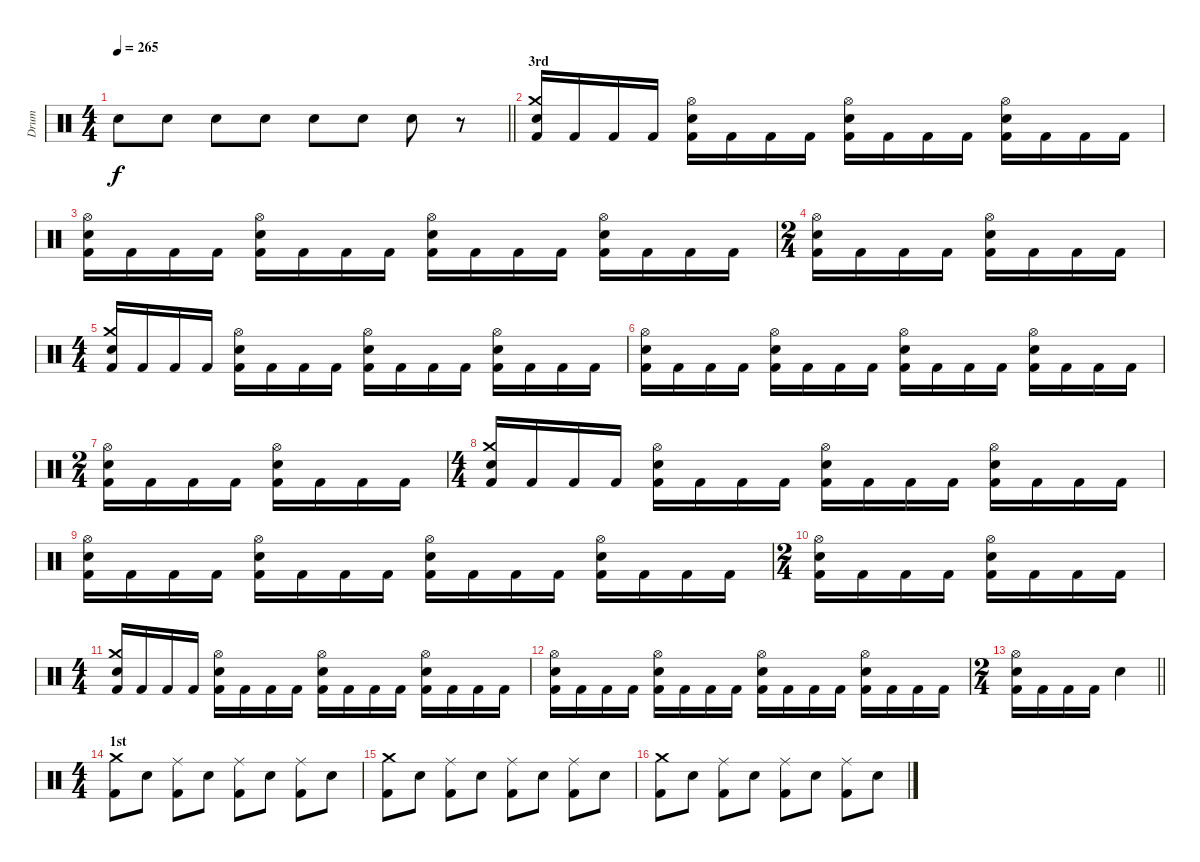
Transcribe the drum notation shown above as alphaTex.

\track ("Drum" "Drum") {instrument percussion}
\staff {score}
\articulation defaults
\ts (4 4)
\tempo 265
\clef neutral
\barLineRight lightlight
\ks c "Snare (hit) 2".8{dy f} "Snare (hit) 2".8 "Snare (hit) 2".8 "Snare (hit) 2".8 "Snare (hit) 2".8 "Snare (hit) 2".8 "Snare (hit) 2".8
r.8 |
\section ("" "3rd")
("Crash medium (hit)" "Snare (hit) 2" "Kick (hit) 2").16 "Kick (hit) 2".16 "Kick (hit) 2".16 "Kick (hit) 2".16 ("Hi-Hat (open)" "Snare (hit) 2" "Kick (hit) 2").16 "Kick (hit) 2".16 "Kick (hit) 2".16 "Kick (hit) 2".16 ("Hi-Hat (open)" "Snare (hit) 2" "Kick (hit) 2").16 "Kick (hit) 2".16 "Kick (hit) 2".16 "Kick (hit) 2".16 ("Hi-Hat (open)" "Snare (hit) 2" "Kick (hit) 2").16 "Kick (hit) 2".16 "Kick (hit) 2".16 "Kick (hit) 2".16 |
("Hi-Hat (open)" "Snare (hit) 2" "Kick (hit) 2").16 "Kick (hit) 2".16 "Kick (hit) 2".16 "Kick (hit) 2".16 ("Hi-Hat (open)" "Snare (hit) 2" "Kick (hit) 2").16 "Kick (hit) 2".16 "Kick (hit) 2".16 "Kick (hit) 2".16 ("Hi-Hat (open)" "Snare (hit) 2" "Kick (hit) 2").16 "Kick (hit) 2".16 "Kick (hit) 2".16 "Kick (hit) 2".16 ("Hi-Hat (open)" "Snare (hit) 2" "Kick (hit) 2").16 "Kick (hit) 2".16 "Kick (hit) 2".16 "Kick (hit) 2".16 |
\ts (2 4)
("Hi-Hat (open)" "Snare (hit) 2" "Kick (hit) 2").16 "Kick (hit) 2".16 "Kick (hit) 2".16 "Kick (hit) 2".16 ("Hi-Hat (open)" "Snare (hit) 2" "Kick (hit) 2").16 "Kick (hit) 2".16 "Kick (hit) 2".16 "Kick (hit) 2".16 |
\ts (4 4)
("Crash medium (hit)" "Snare (hit) 2" "Kick (hit) 2").16 "Kick (hit) 2".16 "Kick (hit) 2".16 "Kick (hit) 2".16 ("Hi-Hat (open)" "Snare (hit) 2" "Kick (hit) 2").16 "Kick (hit) 2".16 "Kick (hit) 2".16 "Kick (hit) 2".16 ("Hi-Hat (open)" "Snare (hit) 2" "Kick (hit) 2").16 "Kick (hit) 2".16 "Kick (hit) 2".16 "Kick (hit) 2".16 ("Hi-Hat (open)" "Snare (hit) 2" "Kick (hit) 2").16 "Kick (hit) 2".16 "Kick (hit) 2".16 "Kick (hit) 2".16 |
("Hi-Hat (open)" "Snare (hit) 2" "Kick (hit) 2").16 "Kick (hit) 2".16 "Kick (hit) 2".16 "Kick (hit) 2".16 ("Hi-Hat (open)" "Snare (hit) 2" "Kick (hit) 2").16 "Kick (hit) 2".16 "Kick (hit) 2".16 "Kick (hit) 2".16 ("Hi-Hat (open)" "Snare (hit) 2" "Kick (hit) 2").16 "Kick (hit) 2".16 "Kick (hit) 2".16 "Kick (hit) 2".16 ("Hi-Hat (open)" "Snare (hit) 2" "Kick (hit) 2").16 "Kick (hit) 2".16 "Kick (hit) 2".16 "Kick (hit) 2".16 |
\ts (2 4)
("Hi-Hat (open)" "Snare (hit) 2" "Kick (hit) 2").16 "Kick (hit) 2".16 "Kick (hit) 2".16 "Kick (hit) 2".16 ("Hi-Hat (open)" "Snare (hit) 2" "Kick (hit) 2").16 "Kick (hit) 2".16 "Kick (hit) 2".16 "Kick (hit) 2".16 |
\ts (4 4)
("Crash medium (hit)" "Snare (hit) 2" "Kick (hit) 2").16 "Kick (hit) 2".16 "Kick (hit) 2".16 "Kick (hit) 2".16 ("Hi-Hat (open)" "Snare (hit) 2" "Kick (hit) 2").16 "Kick (hit) 2".16 "Kick (hit) 2".16 "Kick (hit) 2".16 ("Hi-Hat (open)" "Snare (hit) 2" "Kick (hit) 2").16 "Kick (hit) 2".16 "Kick (hit) 2".16 "Kick (hit) 2".16 ("Hi-Hat (open)" "Snare (hit) 2" "Kick (hit) 2").16 "Kick (hit) 2".16 "Kick (hit) 2".16 "Kick (hit) 2".16 |
("Hi-Hat (open)" "Snare (hit) 2" "Kick (hit) 2").16 "Kick (hit) 2".16 "Kick (hit) 2".16 "Kick (hit) 2".16 ("Hi-Hat (open)" "Snare (hit) 2" "Kick (hit) 2").16 "Kick (hit) 2".16 "Kick (hit) 2".16 "Kick (hit) 2".16 ("Hi-Hat (open)" "Snare (hit) 2" "Kick (hit) 2").16 "Kick (hit) 2".16 "Kick (hit) 2".16 "Kick (hit) 2".16 ("Hi-Hat (open)" "Snare (hit) 2" "Kick (hit) 2").16 "Kick (hit) 2".16 "Kick (hit) 2".16 "Kick (hit) 2".16 |
\ts (2 4)
("Hi-Hat (open)" "Snare (hit) 2" "Kick (hit) 2").16 "Kick (hit) 2".16 "Kick (hit) 2".16 "Kick (hit) 2".16 ("Hi-Hat (open)" "Snare (hit) 2" "Kick (hit) 2").16 "Kick (hit) 2".16 "Kick (hit) 2".16 "Kick (hit) 2".16 |
\ts (4 4)
("Crash medium (hit)" "Snare (hit) 2" "Kick (hit) 2").16 "Kick (hit) 2".16 "Kick (hit) 2".16 "Kick (hit) 2".16 ("Hi-Hat (open)" "Snare (hit) 2" "Kick (hit) 2").16 "Kick (hit) 2".16 "Kick (hit) 2".16 "Kick (hit) 2".16 ("Hi-Hat (open)" "Snare (hit) 2" "Kick (hit) 2").16 "Kick (hit) 2".16 "Kick (hit) 2".16 "Kick (hit) 2".16 ("Hi-Hat (open)" "Snare (hit) 2" "Kick (hit) 2").16 "Kick (hit) 2".16 "Kick (hit) 2".16 "Kick (hit) 2".16 |
("Hi-Hat (open)" "Snare (hit) 2" "Kick (hit) 2").16 "Kick (hit) 2".16 "Kick (hit) 2".16 "Kick (hit) 2".16 ("Hi-Hat (open)" "Snare (hit) 2" "Kick (hit) 2").16 "Kick (hit) 2".16 "Kick (hit) 2".16 "Kick (hit) 2".16 ("Hi-Hat (open)" "Snare (hit) 2" "Kick (hit) 2").16 "Kick (hit) 2".16 "Kick (hit) 2".16 "Kick (hit) 2".16 ("Hi-Hat (open)" "Snare (hit) 2" "Kick (hit) 2").16 "Kick (hit) 2".16 "Kick (hit) 2".16 "Kick (hit) 2".16 |
\ts (2 4)
\barLineRight lightlight
("Hi-Hat (open)" "Snare (hit) 2" "Kick (hit) 2").16 "Kick (hit) 2".16 "Kick (hit) 2".16 "Kick (hit) 2".16 "Snare (hit) 2".4 |
\ts (4 4)
\section ("" "1st")
("Crash medium (hit)" "Kick (hit) 2").8 "Snare (hit) 2".8 ("Ride (middle)" "Kick (hit) 2").8 "Snare (hit) 2".8 ("Ride (middle)" "Kick (hit) 2").8 "Snare (hit) 2".8 ("Ride (middle)" "Kick (hit) 2").8 "Snare (hit) 2".8 |
("Crash medium (hit)" "Kick (hit) 2").8 "Snare (hit) 2".8 ("Ride (middle)" "Kick (hit) 2").8 "Snare (hit) 2".8 ("Ride (middle)" "Kick (hit) 2").8 "Snare (hit) 2".8 ("Ride (middle)" "Kick (hit) 2").8 "Snare (hit) 2".8 |
("Crash medium (hit)" "Kick (hit) 2").8 "Snare (hit) 2".8 ("Ride (middle)" "Kick (hit) 2").8 "Snare (hit) 2".8 ("Ride (middle)" "Kick (hit) 2").8 "Snare (hit) 2".8 ("Ride (middle)" "Kick (hit) 2").8 "Snare (hit) 2".8
